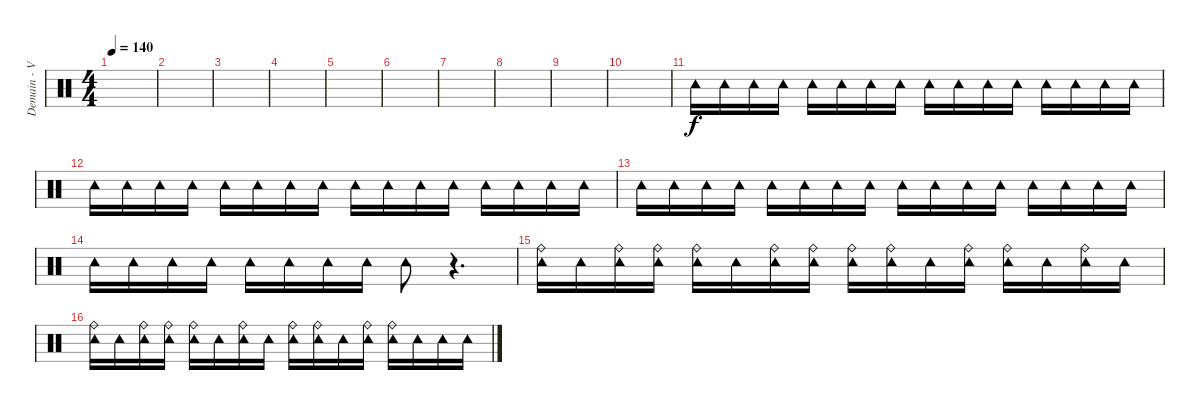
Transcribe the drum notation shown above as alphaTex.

\track ("Demain - Various Perc." "Demain - V") {instrument percussion}
\staff {score}
\articulation defaults
\ts (4 4)
\tempo 140
\clef neutral
\ks c
|
|
|
|
|
|
|
|
|
|
"Tambourine (hit)".16 "Tambourine (hit)".16 "Tambourine (hit)".16 "Tambourine (hit)".16 "Tambourine (hit)".16 "Tambourine (hit)".16 "Tambourine (hit)".16 "Tambourine (hit)".16 "Tambourine (hit)".16 "Tambourine (hit)".16 "Tambourine (hit)".16 "Tambourine (hit)".16 "Tambourine (hit)".16 "Tambourine (hit)".16 "Tambourine (hit)".16 "Tambourine (hit)".16 |
"Tambourine (hit)".16 "Tambourine (hit)".16 "Tambourine (hit)".16 "Tambourine (hit)".16 "Tambourine (hit)".16 "Tambourine (hit)".16 "Tambourine (hit)".16 "Tambourine (hit)".16 "Tambourine (hit)".16 "Tambourine (hit)".16 "Tambourine (hit)".16 "Tambourine (hit)".16 "Tambourine (hit)".16 "Tambourine (hit)".16 "Tambourine (hit)".16 "Tambourine (hit)".16 |
"Tambourine (hit)".16 "Tambourine (hit)".16 "Tambourine (hit)".16 "Tambourine (hit)".16 "Tambourine (hit)".16 "Tambourine (hit)".16 "Tambourine (hit)".16 "Tambourine (hit)".16 "Tambourine (hit)".16 "Tambourine (hit)".16 "Tambourine (hit)".16 "Tambourine (hit)".16 "Tambourine (hit)".16 "Tambourine (hit)".16 "Tambourine (hit)".16 "Tambourine (hit)".16 |
"Tambourine (hit)".16 "Tambourine (hit)".16 "Tambourine (hit)".16 "Tambourine (hit)".16 "Tambourine (hit)".16 "Tambourine (hit)".16 "Tambourine (hit)".16 "Tambourine (hit)".16 "Tambourine (hit)".8 r.4{d} |
("Tambourine (hit)" "Ride (bell)").16 "Tambourine (hit)".16 ("Tambourine (hit)" "Ride (bell)").16 ("Tambourine (hit)" "Ride (bell)").16 ("Tambourine (hit)" "Ride (bell)").16 "Tambourine (hit)".16 ("Tambourine (hit)" "Ride (bell)").16 ("Tambourine (hit)" "Ride (bell)").16 ("Tambourine (hit)" "Ride (bell)").16 ("Tambourine (hit)" "Ride (bell)").16 "Tambourine (hit)".16 ("Tambourine (hit)" "Ride (bell)").16 ("Tambourine (hit)" "Ride (bell)").16 "Tambourine (hit)".16 ("Tambourine (hit)" "Ride (bell)").16 "Tambourine (hit)".16 |
("Tambourine (hit)" "Ride (bell)").16 "Tambourine (hit)".16 ("Tambourine (hit)" "Ride (bell)").16 ("Tambourine (hit)" "Ride (bell)").16 ("Tambourine (hit)" "Ride (bell)").16 "Tambourine (hit)".16 ("Tambourine (hit)" "Ride (bell)").16 "Tambourine (hit)".16 ("Tambourine (hit)" "Ride (bell)").16 ("Tambourine (hit)" "Ride (bell)").16 "Tambourine (hit)".16 ("Tambourine (hit)" "Ride (bell)").16 ("Tambourine (hit)" "Ride (bell)").16 "Tambourine (hit)".16 "Tambourine (hit)".16 "Tambourine (hit)".16
